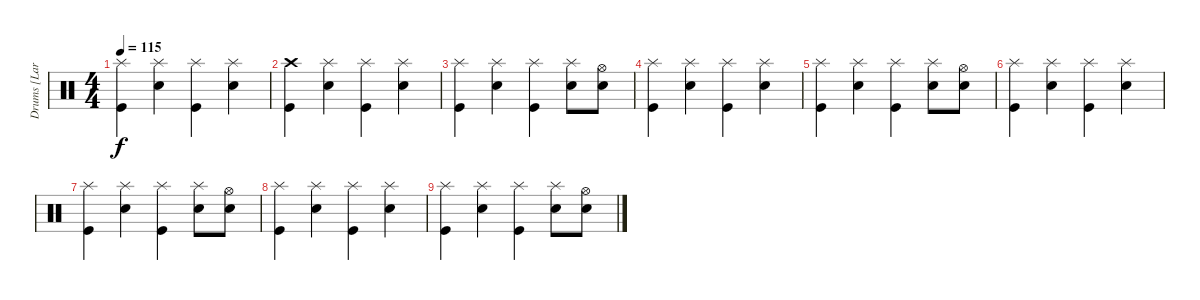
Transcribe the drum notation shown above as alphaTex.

\track ("Drums [Larz]" "Drums [Lar") {instrument percussion}
\staff {score}
\articulation defaults
\ts (4 4)
\tempo 115
\clef neutral
\ks c
("Splash (hit)" "Kick (hit)").4{dy f} ("Splash (hit)" "Snare (hit) 2").4 ("Splash (hit)" "Kick (hit)").4 ("Splash (hit)" "Snare (hit) 2").4 |
("Crash high (hit)" "Kick (hit)").4 ("Splash (hit)" "Snare (hit) 2").4 ("Splash (hit)" "Kick (hit)").4 ("Splash (hit)" "Snare (hit) 2").4 |
("Splash (hit)" "Kick (hit)").4 ("Splash (hit)" "Snare (hit) 2").4 ("Splash (hit)" "Kick (hit)").4 ("Splash (hit)" "Snare (hit) 2").8 ("Snare (hit) 2" "Hi-Hat (open)").8 |
("Splash (hit)" "Kick (hit)").4 ("Splash (hit)" "Snare (hit) 2").4 ("Splash (hit)" "Kick (hit)").4 ("Splash (hit)" "Snare (hit) 2").4 |
("Splash (hit)" "Kick (hit)").4 ("Splash (hit)" "Snare (hit) 2").4 ("Splash (hit)" "Kick (hit)").4 ("Splash (hit)" "Snare (hit) 2").8 ("Snare (hit) 2" "Hi-Hat (open)").8 |
("Splash (hit)" "Kick (hit)").4 ("Splash (hit)" "Snare (hit) 2").4 ("Splash (hit)" "Kick (hit)").4 ("Splash (hit)" "Snare (hit) 2").4 |
("Splash (hit)" "Kick (hit)").4 ("Splash (hit)" "Snare (hit) 2").4 ("Splash (hit)" "Kick (hit)").4 ("Splash (hit)" "Snare (hit) 2").8 ("Snare (hit) 2" "Hi-Hat (open)").8 |
("Splash (hit)" "Kick (hit)").4 ("Splash (hit)" "Snare (hit) 2").4 ("Splash (hit)" "Kick (hit)").4 ("Splash (hit)" "Snare (hit) 2").4 |
("Splash (hit)" "Kick (hit)").4 ("Splash (hit)" "Snare (hit) 2").4 ("Splash (hit)" "Kick (hit)").4 ("Splash (hit)" "Snare (hit) 2").8 ("Snare (hit) 2" "Hi-Hat (open)").8
